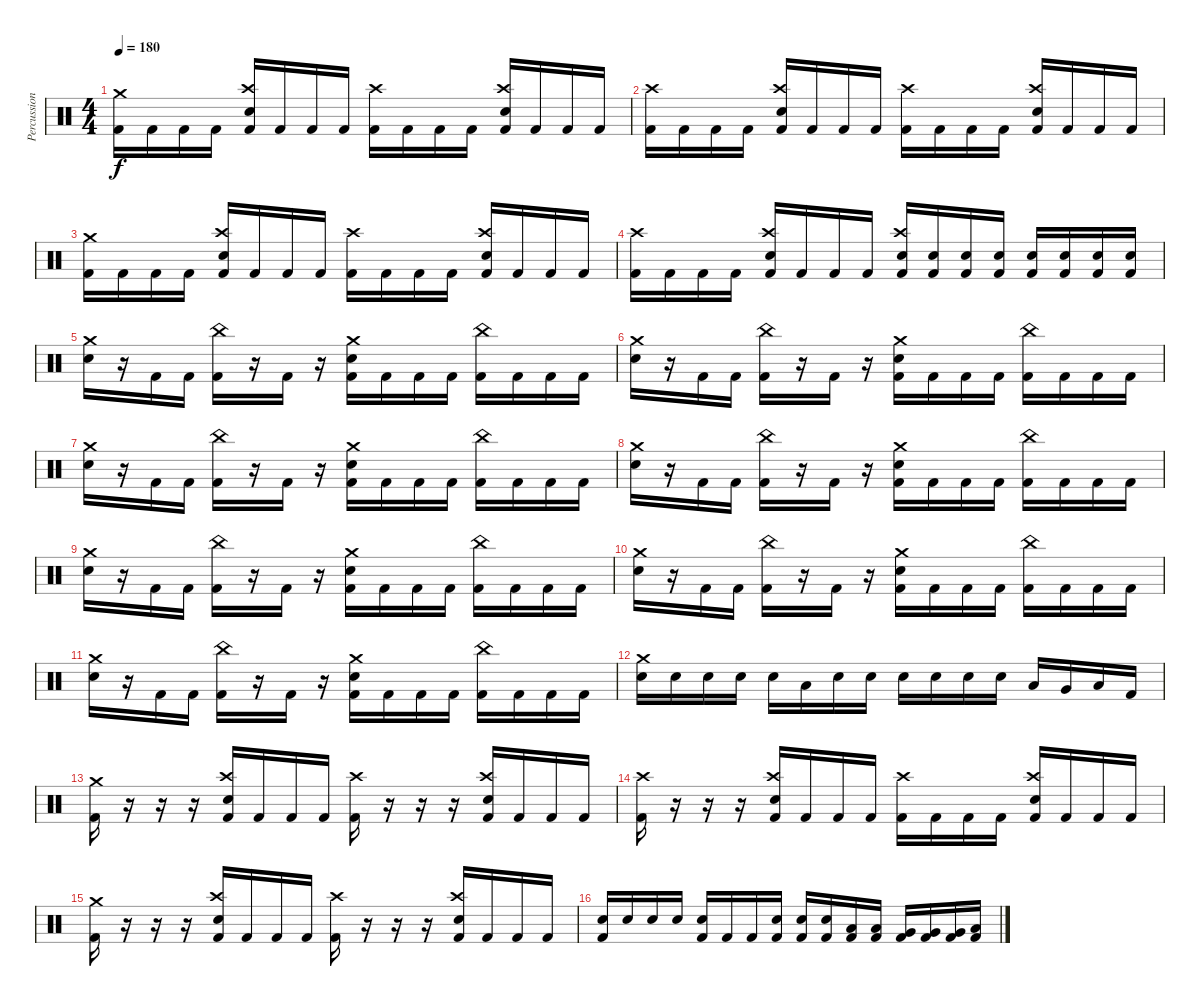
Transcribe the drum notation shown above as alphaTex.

\track ("Percussions" "Percussion") {instrument percussion}
\staff {score}
\articulation defaults
\ts (4 4)
\tempo 180
\clef neutral
\ks c
("Crash medium (hit)" "Kick (hit) 2").16{dy f} "Kick (hit) 2".16 "Kick (hit) 2".16 "Kick (hit) 2".16 ("Crash high (hit)" "Snare (hit) 2" "Kick (hit) 2").16 "Kick (hit) 2".16 "Kick (hit) 2".16 "Kick (hit) 2".16 ("Crash high (hit)" "Kick (hit) 2").16 "Kick (hit) 2".16 "Kick (hit) 2".16 "Kick (hit) 2".16 ("Crash high (hit)" "Snare (hit) 2" "Kick (hit) 2").16 "Kick (hit) 2".16 "Kick (hit) 2".16 "Kick (hit) 2".16 |
("Crash high (hit)" "Kick (hit) 2").16 "Kick (hit) 2".16 "Kick (hit) 2".16 "Kick (hit) 2".16 ("Crash high (hit)" "Snare (hit) 2" "Kick (hit) 2").16 "Kick (hit) 2".16 "Kick (hit) 2".16 "Kick (hit) 2".16 ("Crash high (hit)" "Kick (hit) 2").16 "Kick (hit) 2".16 "Kick (hit) 2".16 "Kick (hit) 2".16 ("Crash high (hit)" "Snare (hit) 2" "Kick (hit) 2").16 "Kick (hit) 2".16 "Kick (hit) 2".16 "Kick (hit) 2".16 |
("Crash medium (hit)" "Kick (hit) 2").16 "Kick (hit) 2".16 "Kick (hit) 2".16 "Kick (hit) 2".16 ("Crash high (hit)" "Snare (hit) 2" "Kick (hit) 2").16 "Kick (hit) 2".16 "Kick (hit) 2".16 "Kick (hit) 2".16 ("Crash high (hit)" "Kick (hit) 2").16 "Kick (hit) 2".16 "Kick (hit) 2".16 "Kick (hit) 2".16 ("Crash high (hit)" "Snare (hit) 2" "Kick (hit) 2").16 "Kick (hit) 2".16 "Kick (hit) 2".16 "Kick (hit) 2".16 |
("Crash high (hit)" "Kick (hit) 2").16 "Kick (hit) 2".16 "Kick (hit) 2".16 "Kick (hit) 2".16 ("Crash high (hit)" "Snare (hit) 2" "Kick (hit) 2").16 "Kick (hit) 2".16 "Kick (hit) 2".16 "Kick (hit) 2".16 ("Crash high (hit)" "Snare (hit) 2" "Kick (hit) 2").16 ("Snare (hit) 2" "Kick (hit) 2").16 ("Snare (hit) 2" "Kick (hit) 2").16 ("Snare (hit) 2" "Kick (hit) 2").16 ("Snare (hit) 2" "Kick (hit) 2").16 ("Snare (hit) 2" "Kick (hit) 2").16 ("Snare (hit) 2" "Kick (hit) 2").16 ("Snare (hit) 2" "Kick (hit) 2").16 |
("Crash medium (hit)" "Snare (hit) 2").16 r.16 "Kick (hit) 2".16 "Kick (hit) 2".16 ("China (hit)" "Kick (hit) 2").16 r.16 "Kick (hit) 2".16 r.16 ("Crash medium (hit)" "Snare (hit) 2" "Kick (hit) 2").16 "Kick (hit) 2".16 "Kick (hit) 2".16 "Kick (hit) 2".16 ("China (hit)" "Kick (hit) 2").16 "Kick (hit) 2".16 "Kick (hit) 2".16 "Kick (hit) 2".16 |
("Crash medium (hit)" "Snare (hit) 2").16 r.16 "Kick (hit) 2".16 "Kick (hit) 2".16 ("China (hit)" "Kick (hit) 2").16 r.16 "Kick (hit) 2".16 r.16 ("Crash medium (hit)" "Snare (hit) 2" "Kick (hit) 2").16 "Kick (hit) 2".16 "Kick (hit) 2".16 "Kick (hit) 2".16 ("China (hit)" "Kick (hit) 2").16 "Kick (hit) 2".16 "Kick (hit) 2".16 "Kick (hit) 2".16 |
("Crash medium (hit)" "Snare (hit) 2").16 r.16 "Kick (hit) 2".16 "Kick (hit) 2".16 ("China (hit)" "Kick (hit) 2").16 r.16 "Kick (hit) 2".16 r.16 ("Crash medium (hit)" "Snare (hit) 2" "Kick (hit) 2").16 "Kick (hit) 2".16 "Kick (hit) 2".16 "Kick (hit) 2".16 ("China (hit)" "Kick (hit) 2").16 "Kick (hit) 2".16 "Kick (hit) 2".16 "Kick (hit) 2".16 |
("Crash medium (hit)" "Snare (hit) 2").16 r.16 "Kick (hit) 2".16 "Kick (hit) 2".16 ("China (hit)" "Kick (hit) 2").16 r.16 "Kick (hit) 2".16 r.16 ("Crash medium (hit)" "Snare (hit) 2" "Kick (hit) 2").16 "Kick (hit) 2".16 "Kick (hit) 2".16 "Kick (hit) 2".16 ("China (hit)" "Kick (hit) 2").16 "Kick (hit) 2".16 "Kick (hit) 2".16 "Kick (hit) 2".16 |
("Crash medium (hit)" "Snare (hit) 2").16 r.16 "Kick (hit) 2".16 "Kick (hit) 2".16 ("China (hit)" "Kick (hit) 2").16 r.16 "Kick (hit) 2".16 r.16 ("Crash medium (hit)" "Snare (hit) 2" "Kick (hit) 2").16 "Kick (hit) 2".16 "Kick (hit) 2".16 "Kick (hit) 2".16 ("China (hit)" "Kick (hit) 2").16 "Kick (hit) 2".16 "Kick (hit) 2".16 "Kick (hit) 2".16 |
("Crash medium (hit)" "Snare (hit) 2").16 r.16 "Kick (hit) 2".16 "Kick (hit) 2".16 ("China (hit)" "Kick (hit) 2").16 r.16 "Kick (hit) 2".16 r.16 ("Crash medium (hit)" "Snare (hit) 2" "Kick (hit) 2").16 "Kick (hit) 2".16 "Kick (hit) 2".16 "Kick (hit) 2".16 ("China (hit)" "Kick (hit) 2").16 "Kick (hit) 2".16 "Kick (hit) 2".16 "Kick (hit) 2".16 |
("Crash medium (hit)" "Snare (hit) 2").16 r.16 "Kick (hit) 2".16 "Kick (hit) 2".16 ("China (hit)" "Kick (hit) 2").16 r.16 "Kick (hit) 2".16 r.16 ("Crash medium (hit)" "Snare (hit) 2" "Kick (hit) 2").16 "Kick (hit) 2".16 "Kick (hit) 2".16 "Kick (hit) 2".16 ("China (hit)" "Kick (hit) 2").16 "Kick (hit) 2".16 "Kick (hit) 2".16 "Kick (hit) 2".16 |
("Crash medium (hit)" "Snare (hit) 2").16 "Snare (hit) 2".16 "Snare (hit) 2".16 "Snare (hit) 2".16 "Snare (hit) 2".16 "Low Tom (hit)".16 "Snare (hit) 2".16 "Snare (hit) 2".16 "Snare (hit) 2".16 "Snare (hit) 2".16 "Snare (hit) 2".16 "Snare (hit) 2".16 "Low Tom (hit)".16 "Very Low Tom (hit)".16 "Low Floor Tom (hit)".16 "Kick (hit) 2".16 |
("Crash medium (hit)" "Kick (hit) 2").16 r.16 r.16 r.16 ("Crash high (hit)" "Snare (hit) 2" "Kick (hit) 2").16 "Kick (hit) 2".16 "Kick (hit) 2".16 "Kick (hit) 2".16 ("Crash high (hit)" "Kick (hit) 2").16 r.16 r.16 r.16 ("Crash high (hit)" "Snare (hit) 2" "Kick (hit) 2").16 "Kick (hit) 2".16 "Kick (hit) 2".16 "Kick (hit) 2".16 |
("Crash high (hit)" "Kick (hit) 2").16 r.16 r.16 r.16 ("Crash high (hit)" "Snare (hit) 2" "Kick (hit) 2").16 "Kick (hit) 2".16 "Kick (hit) 2".16 "Kick (hit) 2".16 ("Crash high (hit)" "Kick (hit) 2").16 "Kick (hit) 2".16 "Kick (hit) 2".16 "Kick (hit) 2".16 ("Crash high (hit)" "Snare (hit) 2" "Kick (hit) 2").16 "Kick (hit) 2".16 "Kick (hit) 2".16 "Kick (hit) 2".16 |
("Crash medium (hit)" "Kick (hit) 2").16 r.16 r.16 r.16 ("Crash high (hit)" "Snare (hit) 2" "Kick (hit) 2").16 "Kick (hit) 2".16 "Kick (hit) 2".16 "Kick (hit) 2".16 ("Crash high (hit)" "Kick (hit) 2").16 r.16 r.16 r.16 ("Crash high (hit)" "Snare (hit) 2" "Kick (hit) 2").16 "Kick (hit) 2".16 "Kick (hit) 2".16 "Kick (hit) 2".16 |
("Snare (hit) 2" "Kick (hit) 2").16 "Snare (hit) 2".16 "Snare (hit) 2".16 "Snare (hit) 2".16 ("Snare (hit) 2" "Kick (hit) 2").16 "Kick (hit) 2".16 "Kick (hit) 2".16 ("Snare (hit) 2" "Kick (hit) 2").16 ("Snare (hit) 2" "Kick (hit) 2").16 ("Snare (hit) 2" "Kick (hit) 2").16 ("Low Tom (hit)" "Kick (hit) 2").16 ("Low Tom (hit)" "Kick (hit) 2").16 ("Very Low Tom (hit)" "Kick (hit) 2").16 ("Very Low Tom (hit)" "Kick (hit) 2").16 ("Very Low Tom (hit)" "Kick (hit) 2").16 ("Low Floor Tom (hit)" "Kick (hit) 2").16
